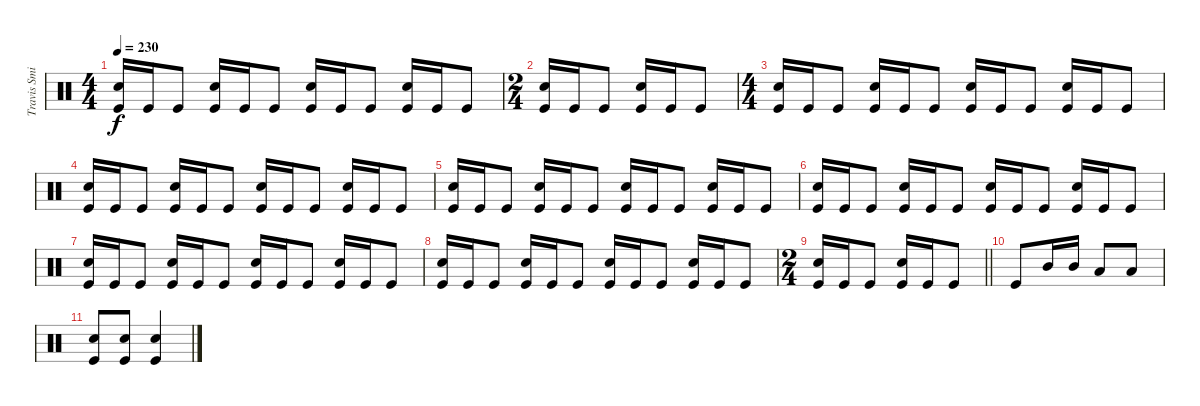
\track ("Travis Smith" "Travis Smi") {instrument percussion}
\staff {score}
\articulation defaults
\ts (4 4)
\tempo 230
\clef neutral
\ks c
("Snare (hit) 2" "Kick (hit)").16{dy f} "Kick (hit)".16 "Kick (hit)".8 ("Snare (hit) 2" "Kick (hit)").16 "Kick (hit)".16 "Kick (hit)".8 ("Snare (hit) 2" "Kick (hit)").16 "Kick (hit)".16 "Kick (hit)".8 ("Snare (hit) 2" "Kick (hit)").16 "Kick (hit)".16 "Kick (hit)".8 |
\ts (2 4)
("Snare (hit) 2" "Kick (hit)").16 "Kick (hit)".16 "Kick (hit)".8 ("Snare (hit) 2" "Kick (hit)").16 "Kick (hit)".16 "Kick (hit)".8 |
\ts (4 4)
("Snare (hit) 2" "Kick (hit)").16 "Kick (hit)".16 "Kick (hit)".8 ("Snare (hit) 2" "Kick (hit)").16 "Kick (hit)".16 "Kick (hit)".8 ("Snare (hit) 2" "Kick (hit)").16 "Kick (hit)".16 "Kick (hit)".8 ("Snare (hit) 2" "Kick (hit)").16 "Kick (hit)".16 "Kick (hit)".8 |
("Snare (hit) 2" "Kick (hit)").16 "Kick (hit)".16 "Kick (hit)".8 ("Snare (hit) 2" "Kick (hit)").16 "Kick (hit)".16 "Kick (hit)".8 ("Snare (hit) 2" "Kick (hit)").16 "Kick (hit)".16 "Kick (hit)".8 ("Snare (hit) 2" "Kick (hit)").16 "Kick (hit)".16 "Kick (hit)".8 |
("Snare (hit) 2" "Kick (hit)").16 "Kick (hit)".16 "Kick (hit)".8 ("Snare (hit) 2" "Kick (hit)").16 "Kick (hit)".16 "Kick (hit)".8 ("Snare (hit) 2" "Kick (hit)").16 "Kick (hit)".16 "Kick (hit)".8 ("Snare (hit) 2" "Kick (hit)").16 "Kick (hit)".16 "Kick (hit)".8 |
("Snare (hit) 2" "Kick (hit)").16 "Kick (hit)".16 "Kick (hit)".8 ("Snare (hit) 2" "Kick (hit)").16 "Kick (hit)".16 "Kick (hit)".8 ("Snare (hit) 2" "Kick (hit)").16 "Kick (hit)".16 "Kick (hit)".8 ("Snare (hit) 2" "Kick (hit)").16 "Kick (hit)".16 "Kick (hit)".8 |
("Snare (hit) 2" "Kick (hit)").16 "Kick (hit)".16 "Kick (hit)".8 ("Snare (hit) 2" "Kick (hit)").16 "Kick (hit)".16 "Kick (hit)".8 ("Snare (hit) 2" "Kick (hit)").16 "Kick (hit)".16 "Kick (hit)".8 ("Snare (hit) 2" "Kick (hit)").16 "Kick (hit)".16 "Kick (hit)".8 |
("Snare (hit) 2" "Kick (hit)").16 "Kick (hit)".16 "Kick (hit)".8 ("Snare (hit) 2" "Kick (hit)").16 "Kick (hit)".16 "Kick (hit)".8 ("Snare (hit) 2" "Kick (hit)").16 "Kick (hit)".16 "Kick (hit)".8 ("Snare (hit) 2" "Kick (hit)").16 "Kick (hit)".16 "Kick (hit)".8 |
\ts (2 4)
\barLineRight lightlight
("Snare (hit) 2" "Kick (hit)").16 "Kick (hit)".16 "Kick (hit)".8 ("Snare (hit) 2" "Kick (hit)").16 "Kick (hit)".16 "Kick (hit)".8 |
"Kick (hit)".8 "Mid Tom (hit)".16 "Mid Tom (hit)".16 "Low Tom (hit)".8 "Low Tom (hit)".8 |
("Snare (hit) 2" "Kick (hit)").8 ("Snare (hit) 2" "Kick (hit)").8 ("Snare (hit) 2" "Kick (hit)").4
